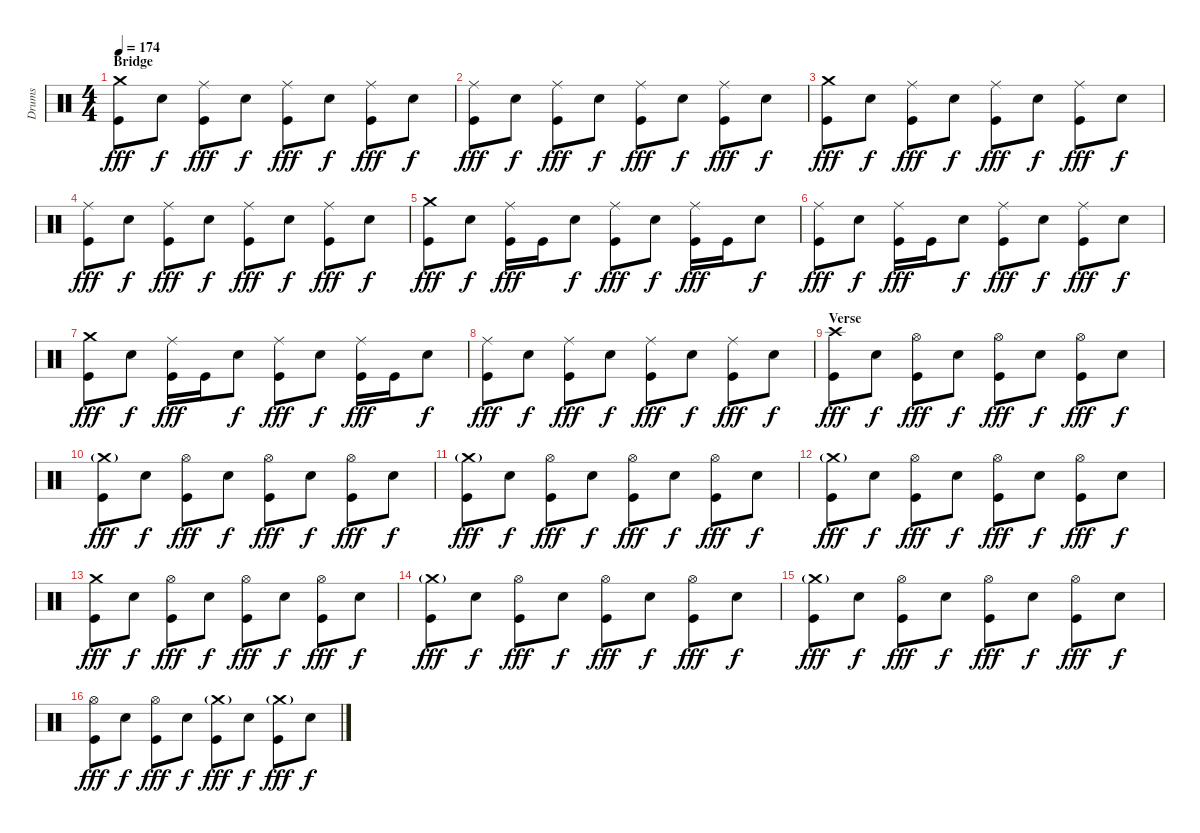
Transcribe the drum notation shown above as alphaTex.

\track ("Drums" "Drums") {instrument percussion}
\staff {score}
\articulation defaults
\ts (4 4)
\section ("" "Bridge")
\tempo 174
\clef neutral
\ks c
("Crash medium (hit)" "Kick (hit)").8{dy fff} "Snare (hit) 2".8{dy f} ("Ride (middle)" "Kick (hit)").8{dy fff} "Snare (hit) 2".8{dy f} ("Ride (middle)" "Kick (hit)").8{dy fff} "Snare (hit) 2".8{dy f} ("Ride (middle)" "Kick (hit)").8{dy fff} "Snare (hit) 2".8{dy f} |
("Ride (middle)" "Kick (hit)").8{dy fff} "Snare (hit) 2".8{dy f} ("Ride (middle)" "Kick (hit)").8{dy fff} "Snare (hit) 2".8{dy f} ("Ride (middle)" "Kick (hit)").8{dy fff} "Snare (hit) 2".8{dy f} ("Ride (middle)" "Kick (hit)").8{dy fff} "Snare (hit) 2".8{dy f} |
("Crash medium (hit)" "Kick (hit)").8{dy fff} "Snare (hit) 2".8{dy f} ("Ride (middle)" "Kick (hit)").8{dy fff} "Snare (hit) 2".8{dy f} ("Ride (middle)" "Kick (hit)").8{dy fff} "Snare (hit) 2".8{dy f} ("Ride (middle)" "Kick (hit)").8{dy fff} "Snare (hit) 2".8{dy f} |
("Ride (middle)" "Kick (hit)").8{dy fff} "Snare (hit) 2".8{dy f} ("Ride (middle)" "Kick (hit)").8{dy fff} "Snare (hit) 2".8{dy f} ("Ride (middle)" "Kick (hit)").8{dy fff} "Snare (hit) 2".8{dy f} ("Ride (middle)" "Kick (hit)").8{dy fff} "Snare (hit) 2".8{dy f} |
("Crash medium (hit)" "Kick (hit)").8{dy fff} "Snare (hit) 2".8{dy f} ("Ride (middle)" "Kick (hit)").16{dy fff} "Kick (hit)".16 "Snare (hit) 2".8{dy f} ("Ride (middle)" "Kick (hit)").8{dy fff} "Snare (hit) 2".8{dy f} ("Ride (middle)" "Kick (hit)").16{dy fff} "Kick (hit)".16 "Snare (hit) 2".8{dy f} |
("Ride (middle)" "Kick (hit)").8{dy fff} "Snare (hit) 2".8{dy f} ("Ride (middle)" "Kick (hit)").16{dy fff} "Kick (hit)".16 "Snare (hit) 2".8{dy f} ("Ride (middle)" "Kick (hit)").8{dy fff} "Snare (hit) 2".8{dy f} ("Ride (middle)" "Kick (hit)").8{dy fff} "Snare (hit) 2".8{dy f} |
("Crash medium (hit)" "Kick (hit)").8{dy fff} "Snare (hit) 2".8{dy f} ("Ride (middle)" "Kick (hit)").16{dy fff} "Kick (hit)".16 "Snare (hit) 2".8{dy f} ("Ride (middle)" "Kick (hit)").8{dy fff} "Snare (hit) 2".8{dy f} ("Ride (middle)" "Kick (hit)").16{dy fff} "Kick (hit)".16 "Snare (hit) 2".8{dy f} |
("Ride (middle)" "Kick (hit)").8{dy fff} "Snare (hit) 2".8{dy f} ("Ride (middle)" "Kick (hit)").8{dy fff} "Snare (hit) 2".8{dy f} ("Ride (middle)" "Kick (hit)").8{dy fff} "Snare (hit) 2".8{dy f} ("Ride (middle)" "Kick (hit)").8{dy fff} "Snare (hit) 2".8{dy f} |
\section ("" "Verse")
("Crash high (hit)" "Kick (hit)").8{dy fff} "Snare (hit) 2".8{dy f} ("Hi-Hat (open)" "Kick (hit)").8{dy fff} "Snare (hit) 2".8{dy f} ("Hi-Hat (open)" "Kick (hit)").8{dy fff} "Snare (hit) 2".8{dy f} ("Hi-Hat (open)" "Kick (hit)").8{dy fff} "Snare (hit) 2".8{dy f} |
("Crash medium (hit)"{g} "Kick (hit)").8{dy fff} "Snare (hit) 2".8{dy f} ("Hi-Hat (open)" "Kick (hit)").8{dy fff} "Snare (hit) 2".8{dy f} ("Hi-Hat (open)" "Kick (hit)").8{dy fff} "Snare (hit) 2".8{dy f} ("Hi-Hat (open)" "Kick (hit)").8{dy fff} "Snare (hit) 2".8{dy f} |
("Crash medium (hit)"{g} "Kick (hit)").8{dy fff} "Snare (hit) 2".8{dy f} ("Hi-Hat (open)" "Kick (hit)").8{dy fff} "Snare (hit) 2".8{dy f} ("Hi-Hat (open)" "Kick (hit)").8{dy fff} "Snare (hit) 2".8{dy f} ("Hi-Hat (open)" "Kick (hit)").8{dy fff} "Snare (hit) 2".8{dy f} |
("Crash medium (hit)"{g} "Kick (hit)").8{dy fff} "Snare (hit) 2".8{dy f} ("Hi-Hat (open)" "Kick (hit)").8{dy fff} "Snare (hit) 2".8{dy f} ("Hi-Hat (open)" "Kick (hit)").8{dy fff} "Snare (hit) 2".8{dy f} ("Hi-Hat (open)" "Kick (hit)").8{dy fff} "Snare (hit) 2".8{dy f} |
("Crash medium (hit)" "Kick (hit)").8{dy fff} "Snare (hit) 2".8{dy f} ("Hi-Hat (open)" "Kick (hit)").8{dy fff} "Snare (hit) 2".8{dy f} ("Hi-Hat (open)" "Kick (hit)").8{dy fff} "Snare (hit) 2".8{dy f} ("Hi-Hat (open)" "Kick (hit)").8{dy fff} "Snare (hit) 2".8{dy f} |
("Crash medium (hit)"{g} "Kick (hit)").8{dy fff} "Snare (hit) 2".8{dy f} ("Hi-Hat (open)" "Kick (hit)").8{dy fff} "Snare (hit) 2".8{dy f} ("Hi-Hat (open)" "Kick (hit)").8{dy fff} "Snare (hit) 2".8{dy f} ("Hi-Hat (open)" "Kick (hit)").8{dy fff} "Snare (hit) 2".8{dy f} |
("Crash medium (hit)"{g} "Kick (hit)").8{dy fff} "Snare (hit) 2".8{dy f} ("Hi-Hat (open)" "Kick (hit)").8{dy fff} "Snare (hit) 2".8{dy f} ("Hi-Hat (open)" "Kick (hit)").8{dy fff} "Snare (hit) 2".8{dy f} ("Hi-Hat (open)" "Kick (hit)").8{dy fff} "Snare (hit) 2".8{dy f} |
("Hi-Hat (open)" "Kick (hit)").8{dy fff} "Snare (hit) 2".8{dy f} ("Hi-Hat (open)" "Kick (hit)").8{dy fff} "Snare (hit) 2".8{dy f} ("Crash medium (hit)"{g} "Kick (hit)").8{dy fff} "Snare (hit) 2".8{dy f} ("Crash medium (hit)"{g} "Kick (hit)").8{dy fff} "Snare (hit) 2".8{dy f}
